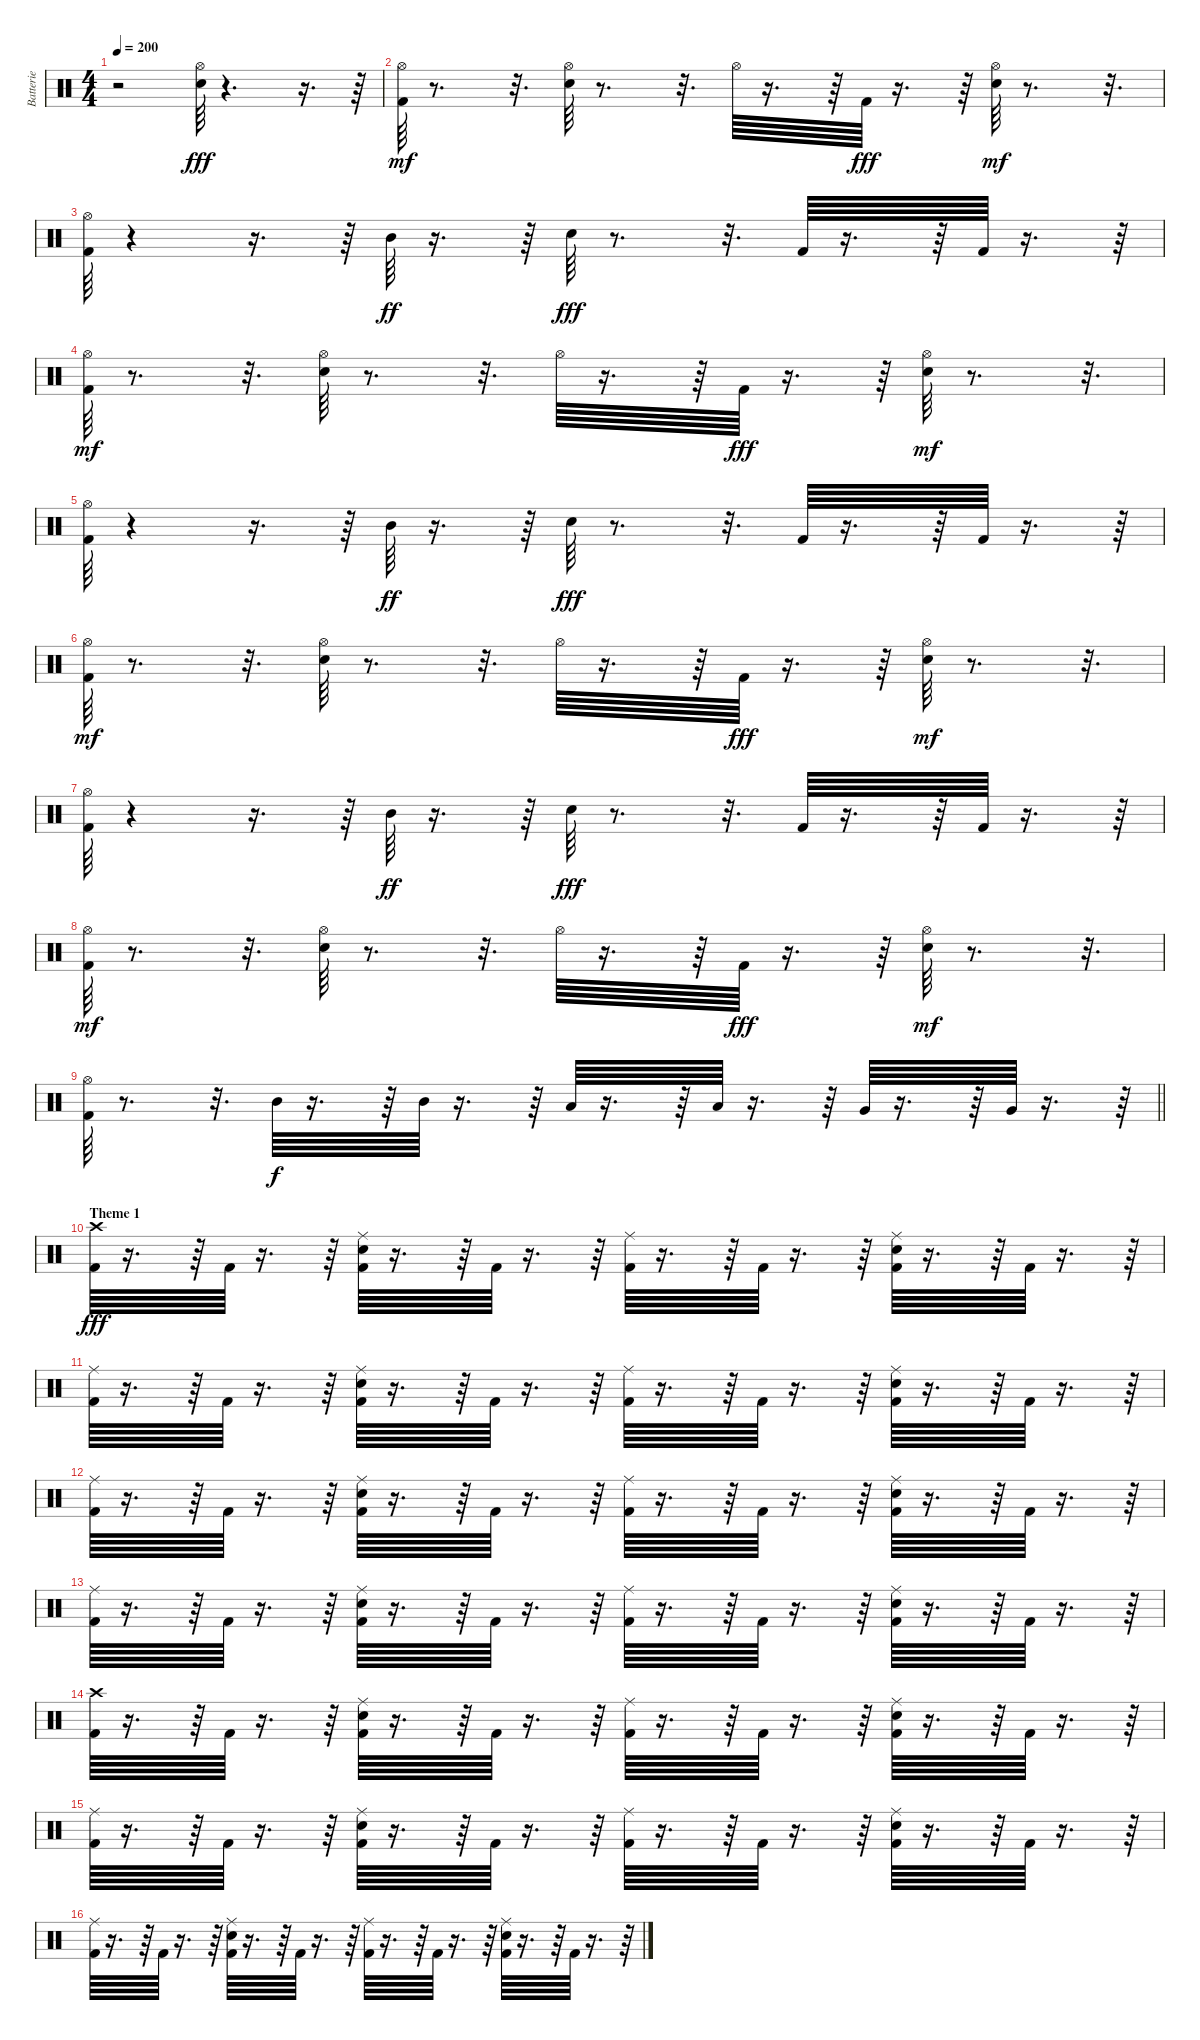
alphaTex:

\track ("Batterie" "Batterie") {instrument percussion}
\staff {score}
\articulation defaults
\ts (4 4)
\tempo 200
\clef neutral
\ks c
r.2{dy fff} ("Snare (hit) 2" "Hi-Hat (open)").64 r.4{d} r.16{d} r.64 |
("Kick (hit) 2" "Hi-Hat (open)").64{dy mf} r.8{d} r.32{d} ("Snare (hit) 2" "Hi-Hat (open)").64 r.8{d} r.32{d} "Hi-Hat (open)".64 r.16{d} r.64 "Kick (hit) 2".64{dy fff} r.16{d} r.64 ("Snare (hit) 2" "Hi-Hat (open)").64{dy mf} r.8{d} r.32{d} |
("Kick (hit) 2" "Hi-Hat (open)").64 r.4 r.16{d} r.64 "Mid Tom (hit)".64{dy ff} r.16{d} r.64 "Snare (hit) 2".64{dy fff} r.8{d} r.32{d} "Kick (hit) 2".64 r.16{d} r.64 "Kick (hit) 2".64 r.16{d} r.64 |
("Kick (hit) 2" "Hi-Hat (open)").64{dy mf} r.8{d} r.32{d} ("Snare (hit) 2" "Hi-Hat (open)").64 r.8{d} r.32{d} "Hi-Hat (open)".64 r.16{d} r.64 "Kick (hit) 2".64{dy fff} r.16{d} r.64 ("Snare (hit) 2" "Hi-Hat (open)").64{dy mf} r.8{d} r.32{d} |
("Kick (hit) 2" "Hi-Hat (open)").64 r.4 r.16{d} r.64 "Mid Tom (hit)".64{dy ff} r.16{d} r.64 "Snare (hit) 2".64{dy fff} r.8{d} r.32{d} "Kick (hit) 2".64 r.16{d} r.64 "Kick (hit) 2".64 r.16{d} r.64 |
("Kick (hit) 2" "Hi-Hat (open)").64{dy mf} r.8{d} r.32{d} ("Snare (hit) 2" "Hi-Hat (open)").64 r.8{d} r.32{d} "Hi-Hat (open)".64 r.16{d} r.64 "Kick (hit) 2".64{dy fff} r.16{d} r.64 ("Snare (hit) 2" "Hi-Hat (open)").64{dy mf} r.8{d} r.32{d} |
("Kick (hit) 2" "Hi-Hat (open)").64 r.4 r.16{d} r.64 "Mid Tom (hit)".64{dy ff} r.16{d} r.64 "Snare (hit) 2".64{dy fff} r.8{d} r.32{d} "Kick (hit) 2".64 r.16{d} r.64 "Kick (hit) 2".64 r.16{d} r.64 |
("Kick (hit) 2" "Hi-Hat (open)").64{dy mf} r.8{d} r.32{d} ("Snare (hit) 2" "Hi-Hat (open)").64 r.8{d} r.32{d} "Hi-Hat (open)".64 r.16{d} r.64 "Kick (hit) 2".64{dy fff} r.16{d} r.64 ("Snare (hit) 2" "Hi-Hat (open)").64{dy mf} r.8{d} r.32{d} |
\barLineRight lightlight
("Kick (hit) 2" "Hi-Hat (open)").64 r.8{d} r.32{d} "Mid Tom (hit)".64{dy f} r.16{d} r.64 "Mid Tom (hit)".64 r.16{d} r.64 "Low Tom (hit)".64 r.16{d} r.64 "Low Tom (hit)".64 r.16{d} r.64 "Very Low Tom (hit)".64 r.16{d} r.64 "Very Low Tom (hit)".64 r.16{d} r.64 |
\section ("" "Theme 1")
("Kick (hit) 2" "Crash high (hit)").64{dy fff} r.16{d} r.64 "Kick (hit) 2".64 r.16{d} r.64 ("Kick (hit) 2" "Snare (hit) 2" "Ride (middle)").64 r.16{d} r.64 "Kick (hit) 2".64 r.16{d} r.64 ("Kick (hit) 2" "Ride (middle)").64 r.16{d} r.64 "Kick (hit) 2".64 r.16{d} r.64 ("Kick (hit) 2" "Snare (hit) 2" "Ride (middle)").64 r.16{d} r.64 "Kick (hit) 2".64 r.16{d} r.64 |
("Kick (hit) 2" "Ride (middle)").64 r.16{d} r.64 "Kick (hit) 2".64 r.16{d} r.64 ("Kick (hit) 2" "Snare (hit) 2" "Ride (middle)").64 r.16{d} r.64 "Kick (hit) 2".64 r.16{d} r.64 ("Kick (hit) 2" "Ride (middle)").64 r.16{d} r.64 "Kick (hit) 2".64 r.16{d} r.64 ("Kick (hit) 2" "Snare (hit) 2" "Ride (middle)").64 r.16{d} r.64 "Kick (hit) 2".64 r.16{d} r.64 |
("Kick (hit) 2" "Ride (middle)").64 r.16{d} r.64 "Kick (hit) 2".64 r.16{d} r.64 ("Kick (hit) 2" "Snare (hit) 2" "Ride (middle)").64 r.16{d} r.64 "Kick (hit) 2".64 r.16{d} r.64 ("Kick (hit) 2" "Ride (middle)").64 r.16{d} r.64 "Kick (hit) 2".64 r.16{d} r.64 ("Kick (hit) 2" "Snare (hit) 2" "Ride (middle)").64 r.16{d} r.64 "Kick (hit) 2".64 r.16{d} r.64 |
("Kick (hit) 2" "Ride (middle)").64 r.16{d} r.64 "Kick (hit) 2".64 r.16{d} r.64 ("Kick (hit) 2" "Snare (hit) 2" "Ride (middle)").64 r.16{d} r.64 "Kick (hit) 2".64 r.16{d} r.64 ("Kick (hit) 2" "Ride (middle)").64 r.16{d} r.64 "Kick (hit) 2".64 r.16{d} r.64 ("Kick (hit) 2" "Snare (hit) 2" "Ride (middle)").64 r.16{d} r.64 "Kick (hit) 2".64 r.16{d} r.64 |
("Kick (hit) 2" "Crash high (hit)").64 r.16{d} r.64 "Kick (hit) 2".64 r.16{d} r.64 ("Kick (hit) 2" "Snare (hit) 2" "Ride (middle)").64 r.16{d} r.64 "Kick (hit) 2".64 r.16{d} r.64 ("Kick (hit) 2" "Ride (middle)").64 r.16{d} r.64 "Kick (hit) 2".64 r.16{d} r.64 ("Kick (hit) 2" "Snare (hit) 2" "Ride (middle)").64 r.16{d} r.64 "Kick (hit) 2".64 r.16{d} r.64 |
("Kick (hit) 2" "Ride (middle)").64 r.16{d} r.64 "Kick (hit) 2".64 r.16{d} r.64 ("Kick (hit) 2" "Snare (hit) 2" "Ride (middle)").64 r.16{d} r.64 "Kick (hit) 2".64 r.16{d} r.64 ("Kick (hit) 2" "Ride (middle)").64 r.16{d} r.64 "Kick (hit) 2".64 r.16{d} r.64 ("Kick (hit) 2" "Snare (hit) 2" "Ride (middle)").64 r.16{d} r.64 "Kick (hit) 2".64 r.16{d} r.64 |
("Kick (hit) 2" "Ride (middle)").64 r.16{d} r.64 "Kick (hit) 2".64 r.16{d} r.64 ("Snare (hit) 2" "Kick (hit) 2" "Ride (middle)").64 r.16{d} r.64 "Kick (hit) 2".64 r.16{d} r.64 ("Kick (hit) 2" "Ride (middle)").64 r.16{d} r.64 "Kick (hit) 2".64 r.16{d} r.64 ("Kick (hit) 2" "Snare (hit) 2" "Ride (middle)").64 r.16{d} r.64 "Kick (hit) 2".64 r.16{d} r.64
